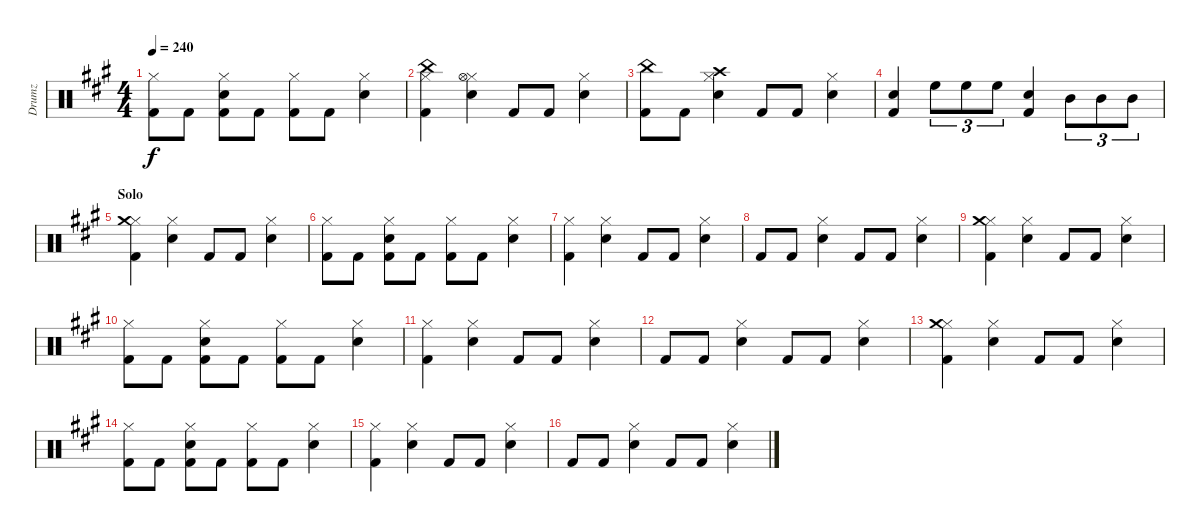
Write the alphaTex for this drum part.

\track ("Drumz" "Drumz") {instrument percussion}
\staff {score}
\articulation defaults
\ts (4 4)
\tempo 240
\clef neutral
\ks a
("Hi-Hat (closed)" "Kick (hit) 2").8{dy f} "Kick (hit) 2".8 ("Hi-Hat (closed)" "Electric Snare (hit)" "Kick (hit) 2").8 "Kick (hit) 2".8 ("Hi-Hat (closed)" "Kick (hit) 2").8 "Kick (hit) 2".8 ("Hi-Hat (closed)" "Electric Snare (hit)").4 |
("Hi-Hat (closed)" "China (hit)" "Kick (hit) 2").4 ("Hi-Hat (closed)" "Hi-Hat (open)" "Electric Snare (hit)").4 "Kick (hit) 2".8 "Kick (hit) 2".8 ("Electric Snare (hit)" "Hi-Hat (closed)").4 |
("Kick (hit) 2" "China (hit)").8 "Kick (hit) 2".8 ("Hi-Hat (closed)" "Electric Snare (hit)" "Crash high (hit)").4 "Kick (hit) 2".8 "Kick (hit) 2".8 ("Electric Snare (hit)" "Hi-Hat (closed)").4 |
("Electric Snare (hit)" "Kick (hit) 2").4 "High Floor Tom (hit)".8{tu (3 2)} "High Floor Tom (hit)".8{tu (3 2)} "High Floor Tom (hit)".8{tu (3 2)} ("Electric Snare (hit)" "Kick (hit) 2").4 "Mid Tom (hit)".8{tu (3 2)} "Mid Tom (hit)".8{tu (3 2)} "Mid Tom (hit)".8{tu (3 2)} |
\section ("" "Solo")
("Hi-Hat (closed)" "Crash medium (hit)" "Kick (hit) 2").4 ("Hi-Hat (closed)" "Electric Snare (hit)").4 "Kick (hit) 2".8 "Kick (hit) 2".8 ("Electric Snare (hit)" "Hi-Hat (closed)").4 |
("Hi-Hat (closed)" "Kick (hit) 2").8 "Kick (hit) 2".8 ("Hi-Hat (closed)" "Electric Snare (hit)" "Kick (hit) 2").8 "Kick (hit) 2".8 ("Hi-Hat (closed)" "Kick (hit) 2").8 "Kick (hit) 2".8 ("Hi-Hat (closed)" "Electric Snare (hit)").4 |
("Hi-Hat (closed)" "Kick (hit) 2").4 ("Hi-Hat (closed)" "Electric Snare (hit)").4 "Kick (hit) 2".8 "Kick (hit) 2".8 ("Electric Snare (hit)" "Hi-Hat (closed)").4 |
"Kick (hit) 2".8 "Kick (hit) 2".8 ("Hi-Hat (closed)" "Electric Snare (hit)").4 "Kick (hit) 2".8 "Kick (hit) 2".8 ("Electric Snare (hit)" "Hi-Hat (closed)").4 |
("Hi-Hat (closed)" "Crash medium (hit)" "Kick (hit) 2").4 ("Hi-Hat (closed)" "Electric Snare (hit)").4 "Kick (hit) 2".8 "Kick (hit) 2".8 ("Electric Snare (hit)" "Hi-Hat (closed)").4 |
("Hi-Hat (closed)" "Kick (hit) 2").8 "Kick (hit) 2".8 ("Hi-Hat (closed)" "Electric Snare (hit)" "Kick (hit) 2").8 "Kick (hit) 2".8 ("Hi-Hat (closed)" "Kick (hit) 2").8 "Kick (hit) 2".8 ("Hi-Hat (closed)" "Electric Snare (hit)").4 |
("Hi-Hat (closed)" "Kick (hit) 2").4 ("Hi-Hat (closed)" "Electric Snare (hit)").4 "Kick (hit) 2".8 "Kick (hit) 2".8 ("Electric Snare (hit)" "Hi-Hat (closed)").4 |
"Kick (hit) 2".8 "Kick (hit) 2".8 ("Hi-Hat (closed)" "Electric Snare (hit)").4 "Kick (hit) 2".8 "Kick (hit) 2".8 ("Electric Snare (hit)" "Hi-Hat (closed)").4 |
("Hi-Hat (closed)" "Crash medium (hit)" "Kick (hit) 2").4 ("Hi-Hat (closed)" "Electric Snare (hit)").4 "Kick (hit) 2".8 "Kick (hit) 2".8 ("Electric Snare (hit)" "Hi-Hat (closed)").4 |
("Hi-Hat (closed)" "Kick (hit) 2").8 "Kick (hit) 2".8 ("Hi-Hat (closed)" "Electric Snare (hit)" "Kick (hit) 2").8 "Kick (hit) 2".8 ("Hi-Hat (closed)" "Kick (hit) 2").8 "Kick (hit) 2".8 ("Hi-Hat (closed)" "Electric Snare (hit)").4 |
("Hi-Hat (closed)" "Kick (hit) 2").4 ("Hi-Hat (closed)" "Electric Snare (hit)").4 "Kick (hit) 2".8 "Kick (hit) 2".8 ("Electric Snare (hit)" "Hi-Hat (closed)").4 |
"Kick (hit) 2".8 "Kick (hit) 2".8 ("Hi-Hat (closed)" "Electric Snare (hit)").4 "Kick (hit) 2".8 "Kick (hit) 2".8 ("Electric Snare (hit)" "Hi-Hat (closed)").4
